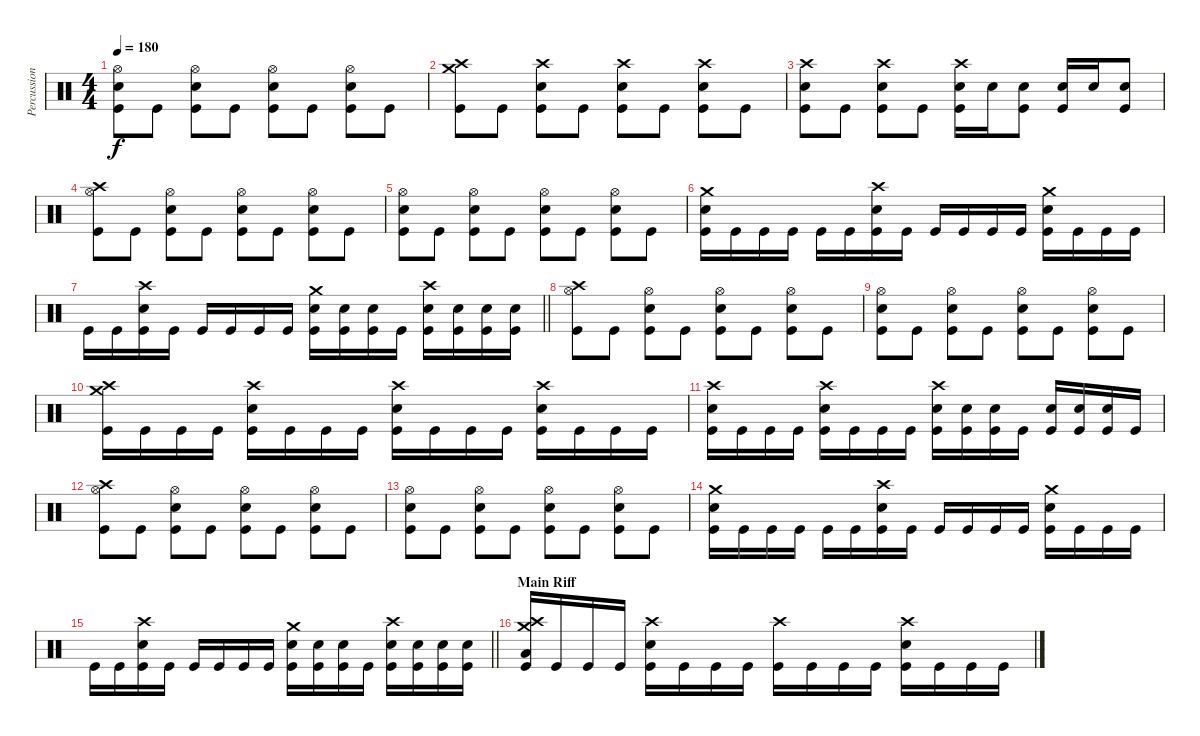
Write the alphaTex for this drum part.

\track ("Percussion" "Percussion") {instrument percussion}
\staff {score}
\articulation defaults
\ts (4 4)
\tempo 180
\clef neutral
\ks c
("Hi-Hat (open)" "Electric Snare (hit)" "Kick (hit)").8{dy f} "Kick (hit)".8 ("Hi-Hat (open)" "Electric Snare (hit)" "Kick (hit)").8 "Kick (hit)".8 ("Hi-Hat (open)" "Electric Snare (hit)" "Kick (hit)").8 "Kick (hit)".8 ("Hi-Hat (open)" "Electric Snare (hit)" "Kick (hit)").8 "Kick (hit)".8 |
("Crash high (hit)" "Crash medium (hit)" "Kick (hit)").8 "Kick (hit)".8 ("Crash high (hit)" "Electric Snare (hit)" "Kick (hit)").8 "Kick (hit)".8 ("Crash high (hit)" "Electric Snare (hit)" "Kick (hit)").8 "Kick (hit)".8 ("Crash high (hit)" "Electric Snare (hit)" "Kick (hit)").8 "Kick (hit)".8 |
("Crash high (hit)" "Electric Snare (hit)" "Kick (hit)").8 "Kick (hit)".8 ("Crash high (hit)" "Electric Snare (hit)" "Kick (hit)").8 "Kick (hit)".8 ("Crash high (hit)" "Electric Snare (hit)" "Kick (hit)").16 "Electric Snare (hit)".16 ("Electric Snare (hit)" "Kick (hit)").8 ("Electric Snare (hit)" "Kick (hit)").16 "Electric Snare (hit)".16 ("Electric Snare (hit)" "Kick (hit)").8 |
("Crash high (hit)" "Hi-Hat (open)" "Kick (hit)").8 "Kick (hit)".8 ("Hi-Hat (open)" "Electric Snare (hit)" "Kick (hit)").8 "Kick (hit)".8 ("Hi-Hat (open)" "Electric Snare (hit)" "Kick (hit)").8 "Kick (hit)".8 ("Hi-Hat (open)" "Electric Snare (hit)" "Kick (hit)").8 "Kick (hit)".8 |
("Hi-Hat (open)" "Electric Snare (hit)" "Kick (hit)").8 "Kick (hit)".8 ("Hi-Hat (open)" "Electric Snare (hit)" "Kick (hit)").8 "Kick (hit)".8 ("Hi-Hat (open)" "Electric Snare (hit)" "Kick (hit)").8 "Kick (hit)".8 ("Hi-Hat (open)" "Electric Snare (hit)" "Kick (hit)").8 "Kick (hit)".8 |
("Crash medium (hit)" "Electric Snare (hit)" "Kick (hit)").16 "Kick (hit)".16 "Kick (hit)".16 "Kick (hit)".16 "Kick (hit)".16 "Kick (hit)".16 ("Crash high (hit)" "Electric Snare (hit)" "Kick (hit)").16 "Kick (hit)".16 "Kick (hit)".16 "Kick (hit)".16 "Kick (hit)".16 "Kick (hit)".16 ("Crash medium (hit)" "Electric Snare (hit)" "Kick (hit)").16 "Kick (hit)".16 "Kick (hit)".16 "Kick (hit)".16 |
\barLineRight lightlight "Kick (hit)".16 "Kick (hit)".16
("Crash high (hit)" "Electric Snare (hit)" "Kick (hit)").16 "Kick (hit)".16 "Kick (hit)".16 "Kick (hit)".16 "Kick (hit)".16 "Kick (hit)".16 ("Crash medium (hit)" "Electric Snare (hit)" "Kick (hit)").16 ("Electric Snare (hit)" "Kick (hit)").16 ("Electric Snare (hit)" "Kick (hit)").16 "Kick (hit)".16 ("Crash high (hit)" "Electric Snare (hit)" "Kick (hit)").16 ("Electric Snare (hit)" "Kick (hit)").16 ("Electric Snare (hit)" "Kick (hit)").16 ("Electric Snare (hit)" "Kick (hit)").16 |
("Crash high (hit)" "Hi-Hat (open)" "Kick (hit)").8 "Kick (hit)".8 ("Hi-Hat (open)" "Electric Snare (hit)" "Kick (hit)").8 "Kick (hit)".8 ("Hi-Hat (open)" "Electric Snare (hit)" "Kick (hit)").8 "Kick (hit)".8 ("Hi-Hat (open)" "Electric Snare (hit)" "Kick (hit)").8 "Kick (hit)".8 |
("Hi-Hat (open)" "Electric Snare (hit)" "Kick (hit)").8 "Kick (hit)".8 ("Hi-Hat (open)" "Electric Snare (hit)" "Kick (hit)").8 "Kick (hit)".8 ("Hi-Hat (open)" "Electric Snare (hit)" "Kick (hit)").8 "Kick (hit)".8 ("Hi-Hat (open)" "Electric Snare (hit)" "Kick (hit)").8 "Kick (hit)".8 |
("Crash high (hit)" "Crash medium (hit)" "Kick (hit)").16 "Kick (hit)".16 "Kick (hit)".16 "Kick (hit)".16 ("Crash high (hit)" "Electric Snare (hit)" "Kick (hit)").16 "Kick (hit)".16 "Kick (hit)".16 "Kick (hit)".16 ("Crash high (hit)" "Electric Snare (hit)" "Kick (hit)").16 "Kick (hit)".16 "Kick (hit)".16 "Kick (hit)".16 ("Crash high (hit)" "Electric Snare (hit)" "Kick (hit)").16 "Kick (hit)".16 "Kick (hit)".16 "Kick (hit)".16 |
("Crash high (hit)" "Electric Snare (hit)" "Kick (hit)").16 "Kick (hit)".16 "Kick (hit)".16 "Kick (hit)".16 ("Crash high (hit)" "Electric Snare (hit)" "Kick (hit)").16 "Kick (hit)".16 "Kick (hit)".16 "Kick (hit)".16 ("Crash high (hit)" "Electric Snare (hit)" "Kick (hit)").16 ("Electric Snare (hit)" "Kick (hit)").16 ("Electric Snare (hit)" "Kick (hit)").16 "Kick (hit)".16 ("Electric Snare (hit)" "Kick (hit)").16 ("Electric Snare (hit)" "Kick (hit)").16 ("Electric Snare (hit)" "Kick (hit)").16 "Kick (hit)".16 |
("Crash high (hit)" "Hi-Hat (open)" "Kick (hit)").8 "Kick (hit)".8 ("Hi-Hat (open)" "Electric Snare (hit)" "Kick (hit)").8 "Kick (hit)".8 ("Hi-Hat (open)" "Electric Snare (hit)" "Kick (hit)").8 "Kick (hit)".8 ("Hi-Hat (open)" "Electric Snare (hit)" "Kick (hit)").8 "Kick (hit)".8 |
("Hi-Hat (open)" "Electric Snare (hit)" "Kick (hit)").8 "Kick (hit)".8 ("Hi-Hat (open)" "Electric Snare (hit)" "Kick (hit)").8 "Kick (hit)".8 ("Hi-Hat (open)" "Electric Snare (hit)" "Kick (hit)").8 "Kick (hit)".8 ("Hi-Hat (open)" "Electric Snare (hit)" "Kick (hit)").8 "Kick (hit)".8 |
("Crash medium (hit)" "Electric Snare (hit)" "Kick (hit)").16 "Kick (hit)".16 "Kick (hit)".16 "Kick (hit)".16 "Kick (hit)".16 "Kick (hit)".16 ("Crash high (hit)" "Electric Snare (hit)" "Kick (hit)").16 "Kick (hit)".16 "Kick (hit)".16 "Kick (hit)".16 "Kick (hit)".16 "Kick (hit)".16 ("Crash medium (hit)" "Electric Snare (hit)" "Kick (hit)").16 "Kick (hit)".16 "Kick (hit)".16 "Kick (hit)".16 |
\barLineRight lightlight "Kick (hit)".16 "Kick (hit)".16
("Crash high (hit)" "Electric Snare (hit)" "Kick (hit)").16 "Kick (hit)".16 "Kick (hit)".16 "Kick (hit)".16 "Kick (hit)".16 "Kick (hit)".16 ("Crash medium (hit)" "Electric Snare (hit)" "Kick (hit)").16 ("Electric Snare (hit)" "Kick (hit)").16 ("Electric Snare (hit)" "Kick (hit)").16 "Kick (hit)".16 ("Crash high (hit)" "Electric Snare (hit)" "Kick (hit)").16 ("Electric Snare (hit)" "Kick (hit)").16 ("Electric Snare (hit)" "Kick (hit)").16 ("Electric Snare (hit)" "Kick (hit)").16 |
\section ("" "Main Riff")
("Crash high (hit)" "Crash medium (hit)" "Low Floor Tom (hit)" "Kick (hit)").16 "Kick (hit)".16 "Kick (hit)".16 "Kick (hit)".16 ("Crash high (hit)" "Electric Snare (hit)" "Kick (hit)").16 "Kick (hit)".16 "Kick (hit)".16 "Kick (hit)".16 ("Crash high (hit)" "Kick (hit)").16 "Kick (hit)".16 "Kick (hit)".16 "Kick (hit)".16 ("Crash high (hit)" "Electric Snare (hit)" "Kick (hit)").16 "Kick (hit)".16 "Kick (hit)".16 "Kick (hit)".16
